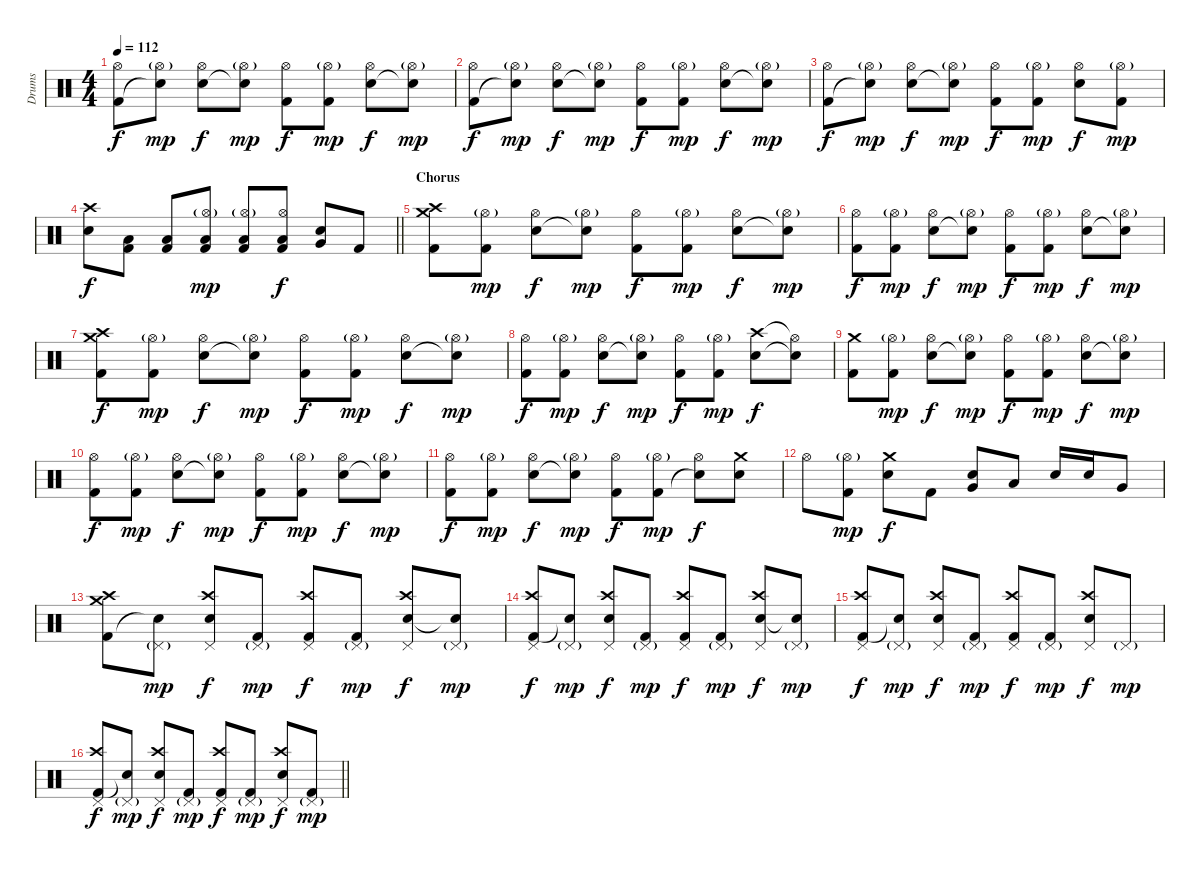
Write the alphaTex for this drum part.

\track ("Drums" "Drums") {instrument percussion}
\staff {score}
\articulation defaults
\ts (4 4)
\tempo 112
\clef neutral
\ks c
("Kick (hit) 2" "Hi-Hat (open)").8{dy f} ("Snare (hit)"{t} "Hi-Hat (open)"{g}).8{dy mp} ("Electric Snare (hit)" "Hi-Hat (open)").8{dy f} ("Snare (hit)"{t} "Hi-Hat (open)"{g}).8{dy mp} ("Kick (hit) 2" "Hi-Hat (open)").8{dy f} ("Kick (hit) 2" "Hi-Hat (open)"{g}).8{dy mp} ("Electric Snare (hit)" "Hi-Hat (open)").8{dy f} ("Snare (hit)"{t} "Hi-Hat (open)"{g}).8{dy mp} |
("Kick (hit) 2" "Hi-Hat (open)").8{dy f} ("Snare (hit)"{t} "Hi-Hat (open)"{g}).8{dy mp} ("Electric Snare (hit)" "Hi-Hat (open)").8{dy f} ("Snare (hit)"{t} "Hi-Hat (open)"{g}).8{dy mp} ("Kick (hit) 2" "Hi-Hat (open)").8{dy f} ("Kick (hit) 2" "Hi-Hat (open)"{g}).8{dy mp} ("Electric Snare (hit)" "Hi-Hat (open)").8{dy f} ("Snare (hit)"{t} "Hi-Hat (open)"{g}).8{dy mp} |
("Kick (hit) 2" "Hi-Hat (open)").8{dy f} ("Snare (hit)"{t} "Hi-Hat (open)"{g}).8{dy mp} ("Electric Snare (hit)" "Hi-Hat (open)").8{dy f} ("Snare (hit)"{t} "Hi-Hat (open)"{g}).8{dy mp} ("Kick (hit) 2" "Hi-Hat (open)").8{dy f} ("Kick (hit) 2" "Hi-Hat (open)"{g}).8{dy mp} ("Electric Snare (hit)" "Hi-Hat (open)").8{dy f} ("Kick (hit) 2" "Hi-Hat (open)"{g}).8{dy mp} |
\barLineRight lightlight
("Electric Snare (hit)" "Crash high (hit)").8{dy f} ("Kick (hit) 2" "Low Floor Tom (hit)").8 ("Kick (hit) 2" "Low Floor Tom (hit)").8 ("Kick (hit) 2" "Low Floor Tom (hit)" "Hi-Hat (open)"{g}).8{dy mp} ("Kick (hit) 2" "Low Floor Tom (hit)" "Hi-Hat (open)"{g}).8 ("Kick (hit) 2" "Low Floor Tom (hit)" "Hi-Hat (open)").8{dy f} ("Electric Snare (hit)" "Very Low Tom (hit)").8 "Kick (hit) 2".8 |
\section ("" "Chorus")
("Kick (hit) 2" "Crash medium (hit)" "Crash high (hit)").8 ("Kick (hit) 2" "Hi-Hat (open)"{g}).8{dy mp} ("Electric Snare (hit)" "Hi-Hat (open)").8{dy f} ("Snare (hit)"{t} "Hi-Hat (open)"{g}).8{dy mp} ("Kick (hit) 2" "Hi-Hat (open)").8{dy f} ("Kick (hit) 2" "Hi-Hat (open)"{g}).8{dy mp} ("Electric Snare (hit)" "Hi-Hat (open)").8{dy f} ("Snare (hit)"{t} "Hi-Hat (open)"{g}).8{dy mp} |
("Kick (hit) 2" "Hi-Hat (open)").8{dy f} ("Kick (hit) 2" "Hi-Hat (open)"{g}).8{dy mp} ("Electric Snare (hit)" "Hi-Hat (open)").8{dy f} ("Snare (hit)"{t} "Hi-Hat (open)"{g}).8{dy mp} ("Kick (hit) 2" "Hi-Hat (open)").8{dy f} ("Kick (hit) 2" "Hi-Hat (open)"{g}).8{dy mp} ("Electric Snare (hit)" "Hi-Hat (open)").8{dy f} ("Snare (hit)"{t} "Hi-Hat (open)"{g}).8{dy mp} |
("Kick (hit) 2" "Crash medium (hit)" "Crash high (hit)").8{dy f} ("Kick (hit) 2" "Hi-Hat (open)"{g}).8{dy mp} ("Electric Snare (hit)" "Hi-Hat (open)").8{dy f} ("Snare (hit)"{t} "Hi-Hat (open)"{g}).8{dy mp} ("Kick (hit) 2" "Hi-Hat (open)").8{dy f} ("Kick (hit) 2" "Hi-Hat (open)"{g}).8{dy mp} ("Electric Snare (hit)" "Hi-Hat (open)").8{dy f} ("Snare (hit)"{t} "Hi-Hat (open)"{g}).8{dy mp} |
("Kick (hit) 2" "Hi-Hat (open)").8{dy f} ("Kick (hit) 2" "Hi-Hat (open)"{g}).8{dy mp} ("Electric Snare (hit)" "Hi-Hat (open)").8{dy f} ("Snare (hit)"{t} "Hi-Hat (open)"{g}).8{dy mp} ("Kick (hit) 2" "Hi-Hat (open)").8{dy f} ("Kick (hit) 2" "Hi-Hat (open)"{g}).8{dy mp} ("Electric Snare (hit)" "Crash high (hit)").8{dy f} ("Snare (hit)"{t} "Hi-Hat (open)"{t}).8 |
("Kick (hit) 2" "Crash medium (hit)").8 ("Kick (hit) 2" "Hi-Hat (open)"{g}).8{dy mp} ("Electric Snare (hit)" "Hi-Hat (open)").8{dy f} ("Snare (hit)"{t} "Hi-Hat (open)"{g}).8{dy mp} ("Kick (hit) 2" "Hi-Hat (open)").8{dy f} ("Kick (hit) 2" "Hi-Hat (open)"{g}).8{dy mp} ("Electric Snare (hit)" "Hi-Hat (open)").8{dy f} ("Snare (hit)"{t} "Hi-Hat (open)"{g}).8{dy mp} |
("Kick (hit) 2" "Hi-Hat (open)").8{dy f} ("Kick (hit) 2" "Hi-Hat (open)"{g}).8{dy mp} ("Electric Snare (hit)" "Hi-Hat (open)").8{dy f} ("Snare (hit)"{t} "Hi-Hat (open)"{g}).8{dy mp} ("Kick (hit) 2" "Hi-Hat (open)").8{dy f} ("Kick (hit) 2" "Hi-Hat (open)"{g}).8{dy mp} ("Electric Snare (hit)" "Hi-Hat (open)").8{dy f} ("Snare (hit)"{t} "Hi-Hat (open)"{g}).8{dy mp} |
("Kick (hit) 2" "Hi-Hat (open)").8{dy f} ("Kick (hit) 2" "Hi-Hat (open)"{g}).8{dy mp} ("Electric Snare (hit)" "Hi-Hat (open)").8{dy f} ("Snare (hit)"{t} "Hi-Hat (open)"{g}).8{dy mp} ("Kick (hit) 2" "Hi-Hat (open)").8{dy f} ("Kick (hit) 2" "Hi-Hat (open)"{g}).8{dy mp} ("Electric Snare (hit)"{t} "Hi-Hat (open)").8{dy f} ("Electric Snare (hit)" "Crash medium (hit)").8 |
"Hi-Hat (open)".8 ("Kick (hit) 2" "Hi-Hat (open)"{g}).8{dy mp} ("Electric Snare (hit)" "Crash medium (hit)").8{dy f} "Kick (hit) 2".8 ("Electric Snare (hit)" "Very Low Tom (hit)").8 "Low Tom (hit)".8 "Electric Snare (hit)".16 "Electric Snare (hit)".16 "Very Low Tom (hit)".8 |
("Kick (hit) 2" "Crash medium (hit)" "Crash high (hit)").8 ("Snare (hit)"{t} "Pedal Hi-Hat (hit)"{g}).8{dy mp} ("Electric Snare (hit)" "Pedal Hi-Hat (hit)" "Crash high (hit)").8{dy f} ("Kick (hit) 2" "Pedal Hi-Hat (hit)"{g}).8{dy mp} ("Kick (hit) 2" "Pedal Hi-Hat (hit)" "Crash high (hit)").8{dy f} ("Kick (hit) 2" "Pedal Hi-Hat (hit)"{g}).8{dy mp} ("Electric Snare (hit)" "Pedal Hi-Hat (hit)" "Crash high (hit)").8{dy f} ("Snare (hit)"{t} "Pedal Hi-Hat (hit)"{g}).8{dy mp} |
("Kick (hit) 2" "Pedal Hi-Hat (hit)" "Crash high (hit)").8{dy f} ("Snare (hit)"{t} "Pedal Hi-Hat (hit)"{g}).8{dy mp} ("Electric Snare (hit)" "Pedal Hi-Hat (hit)" "Crash high (hit)").8{dy f} ("Kick (hit) 2" "Pedal Hi-Hat (hit)"{g}).8{dy mp} ("Kick (hit) 2" "Pedal Hi-Hat (hit)" "Crash high (hit)").8{dy f} ("Kick (hit) 2" "Pedal Hi-Hat (hit)"{g}).8{dy mp} ("Electric Snare (hit)" "Pedal Hi-Hat (hit)" "Crash high (hit)").8{dy f} ("Snare (hit)"{t} "Pedal Hi-Hat (hit)"{g}).8{dy mp} |
("Kick (hit) 2" "Pedal Hi-Hat (hit)" "Crash high (hit)").8{dy f} ("Snare (hit)"{t} "Pedal Hi-Hat (hit)"{g}).8{dy mp} ("Electric Snare (hit)" "Pedal Hi-Hat (hit)" "Crash high (hit)").8{dy f} ("Kick (hit) 2" "Pedal Hi-Hat (hit)"{g}).8{dy mp} ("Kick (hit) 2" "Pedal Hi-Hat (hit)" "Crash high (hit)").8{dy f} ("Kick (hit) 2" "Pedal Hi-Hat (hit)"{g}).8{dy mp} ("Electric Snare (hit)" "Pedal Hi-Hat (hit)" "Crash high (hit)").8{dy f} "Pedal Hi-Hat (hit)"{g}.8{dy mp} |
\barLineRight lightlight
("Kick (hit) 2" "Pedal Hi-Hat (hit)" "Crash high (hit)").8{dy f} ("Snare (hit)"{t} "Pedal Hi-Hat (hit)"{g}).8{dy mp} ("Electric Snare (hit)" "Pedal Hi-Hat (hit)" "Crash high (hit)").8{dy f} ("Kick (hit) 2" "Pedal Hi-Hat (hit)"{g}).8{dy mp} ("Kick (hit) 2" "Pedal Hi-Hat (hit)" "Crash high (hit)").8{dy f} ("Kick (hit) 2" "Pedal Hi-Hat (hit)"{g}).8{dy mp} ("Electric Snare (hit)" "Pedal Hi-Hat (hit)" "Crash high (hit)").8{dy f} ("Kick (hit) 2" "Pedal Hi-Hat (hit)"{g}).8{dy mp}
